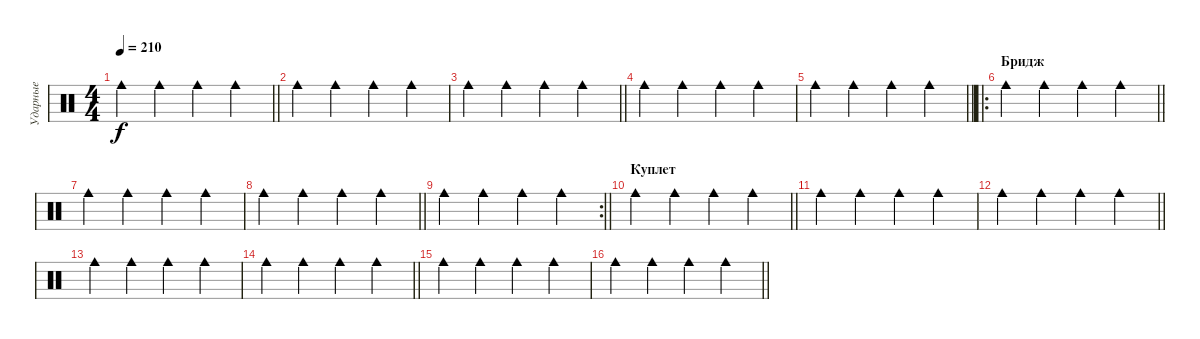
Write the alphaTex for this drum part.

\track ("Ударные" "Ударные") {mute instrument percussion}
\staff {score}
\articulation defaults
\ts (4 4)
\tempo 210
\clef neutral
\barLineRight lightlight
\ks c "Cowbell medium (hit)".4{dy f} "Cowbell medium (hit)".4 "Cowbell medium (hit)".4 "Cowbell medium (hit)".4
|
"Cowbell medium (hit)".4 "Cowbell medium (hit)".4 "Cowbell medium (hit)".4 "Cowbell medium (hit)".4 |
\barLineRight lightlight "Cowbell medium (hit)".4 "Cowbell medium (hit)".4 "Cowbell medium (hit)".4 "Cowbell medium (hit)".4
|
"Cowbell medium (hit)".4 "Cowbell medium (hit)".4 "Cowbell medium (hit)".4 "Cowbell medium (hit)".4 |
\barLineRight lightlight "Cowbell medium (hit)".4 "Cowbell medium (hit)".4 "Cowbell medium (hit)".4 "Cowbell medium (hit)".4
|
\ro
\section ("" "Бридж")
\barLineRight lightlight "Cowbell medium (hit)".4 "Cowbell medium (hit)".4 "Cowbell medium (hit)".4 "Cowbell medium (hit)".4
|
"Cowbell medium (hit)".4 "Cowbell medium (hit)".4 "Cowbell medium (hit)".4 "Cowbell medium (hit)".4 |
\barLineRight lightlight "Cowbell medium (hit)".4 "Cowbell medium (hit)".4 "Cowbell medium (hit)".4 "Cowbell medium (hit)".4
|
\rc 2
\barLineRight lightlight "Cowbell medium (hit)".4 "Cowbell medium (hit)".4 "Cowbell medium (hit)".4 "Cowbell medium (hit)".4
|
\section ("" "Куплет")
\barLineRight lightlight "Cowbell medium (hit)".4 "Cowbell medium (hit)".4 "Cowbell medium (hit)".4 "Cowbell medium (hit)".4
|
"Cowbell medium (hit)".4 "Cowbell medium (hit)".4 "Cowbell medium (hit)".4 "Cowbell medium (hit)".4 |
\barLineRight lightlight "Cowbell medium (hit)".4 "Cowbell medium (hit)".4 "Cowbell medium (hit)".4 "Cowbell medium (hit)".4
|
"Cowbell medium (hit)".4 "Cowbell medium (hit)".4 "Cowbell medium (hit)".4 "Cowbell medium (hit)".4 |
\barLineRight lightlight "Cowbell medium (hit)".4 "Cowbell medium (hit)".4 "Cowbell medium (hit)".4 "Cowbell medium (hit)".4
|
"Cowbell medium (hit)".4 "Cowbell medium (hit)".4 "Cowbell medium (hit)".4 "Cowbell medium (hit)".4 |
\barLineRight lightlight "Cowbell medium (hit)".4 "Cowbell medium (hit)".4 "Cowbell medium (hit)".4 "Cowbell medium (hit)".4
